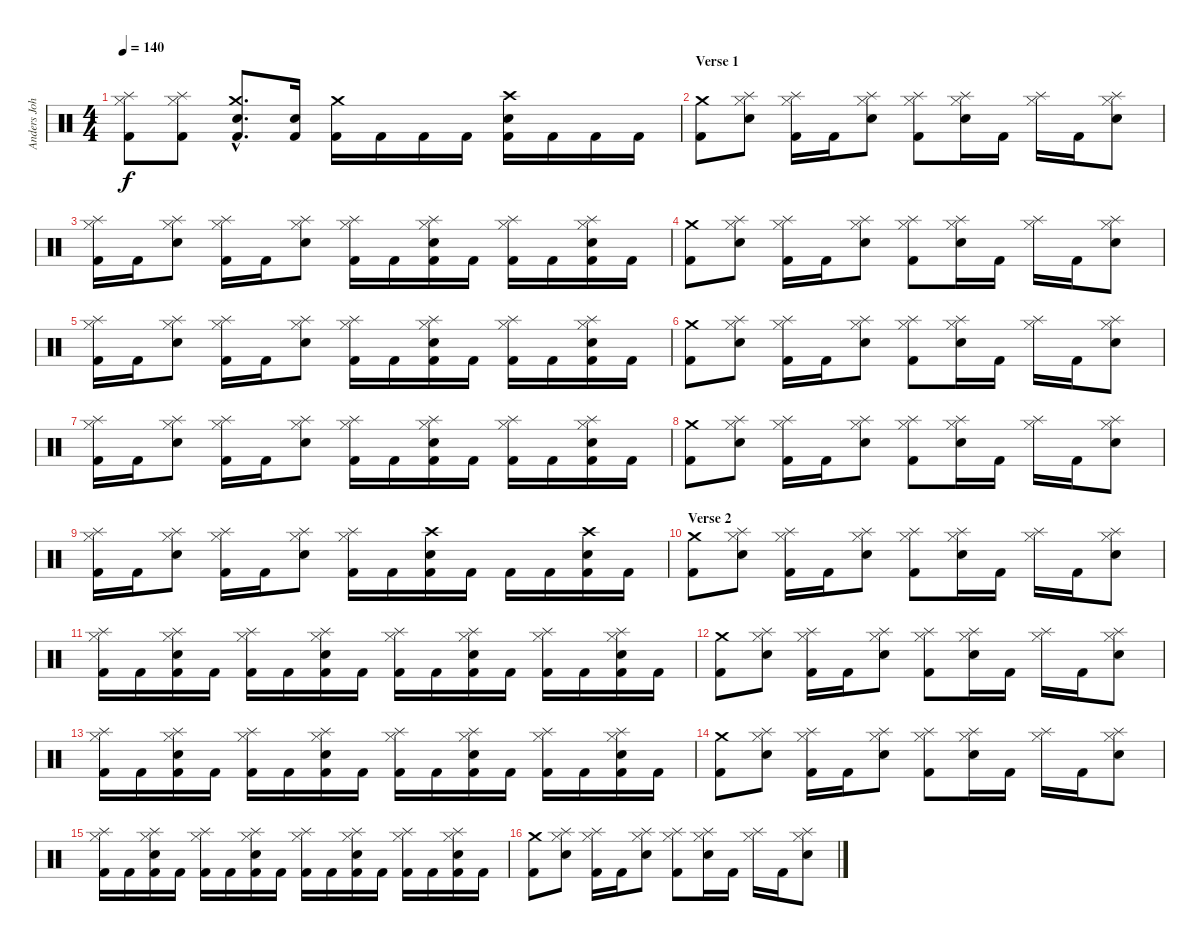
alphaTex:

\track ("Anders Johansson :: Drums" "Anders Joh") {instrument percussion}
\staff {score}
\articulation defaults
\ts (4 4)
\tempo 140
\clef neutral
\ks c
("Hi-Hat (closed)" "Splash (hit)" "Kick (hit) 2").8{dy f} ("Hi-Hat (closed)" "Splash (hit)" "Kick (hit) 2").8 ("Crash medium (hit)"{hac} "Snare (hit) 2"{hac} "Kick (hit) 2"{hac}).8{d} ("Snare (hit) 2" "Kick (hit) 2").16 ("Crash medium (hit)" "Kick (hit) 2").16 "Kick (hit) 2".16 "Kick (hit) 2".16 "Kick (hit) 2".16 ("Crash high (hit)" "Snare (hit) 2" "Kick (hit) 2").16 "Kick (hit) 2".16 "Kick (hit) 2".16 "Kick (hit) 2".16 |
\section ("" "Verse 1")
("Crash medium (hit)" "Kick (hit) 2").8 ("Hi-Hat (closed)" "Splash (hit)" "Snare (hit) 2").8 ("Hi-Hat (closed)" "Splash (hit)" "Kick (hit) 2").16 "Kick (hit) 2".16 ("Hi-Hat (closed)" "Splash (hit)" "Snare (hit) 2").8 ("Hi-Hat (closed)" "Splash (hit)" "Kick (hit) 2").8 ("Hi-Hat (closed)" "Splash (hit)" "Snare (hit) 2").16 "Kick (hit) 2".16 ("Hi-Hat (closed)" "Splash (hit)").16 "Kick (hit) 2".16 ("Hi-Hat (closed)" "Splash (hit)" "Snare (hit) 2").8 |
("Hi-Hat (closed)" "Splash (hit)" "Kick (hit) 2").16 "Kick (hit) 2".16 ("Hi-Hat (closed)" "Splash (hit)" "Snare (hit) 2").8 ("Hi-Hat (closed)" "Splash (hit)" "Kick (hit) 2").16 "Kick (hit) 2".16 ("Hi-Hat (closed)" "Splash (hit)" "Snare (hit) 2").8 ("Hi-Hat (closed)" "Splash (hit)" "Kick (hit) 2").16 "Kick (hit) 2".16 ("Hi-Hat (closed)" "Splash (hit)" "Snare (hit) 2" "Kick (hit) 2").16 "Kick (hit) 2".16 ("Hi-Hat (closed)" "Splash (hit)" "Kick (hit) 2").16 "Kick (hit) 2".16 ("Hi-Hat (closed)" "Splash (hit)" "Snare (hit) 2" "Kick (hit) 2").16 "Kick (hit) 2".16 |
("Crash medium (hit)" "Kick (hit) 2").8 ("Hi-Hat (closed)" "Splash (hit)" "Snare (hit) 2").8 ("Hi-Hat (closed)" "Splash (hit)" "Kick (hit) 2").16 "Kick (hit) 2".16 ("Hi-Hat (closed)" "Splash (hit)" "Snare (hit) 2").8 ("Hi-Hat (closed)" "Splash (hit)" "Kick (hit) 2").8 ("Hi-Hat (closed)" "Splash (hit)" "Snare (hit) 2").16 "Kick (hit) 2".16 ("Hi-Hat (closed)" "Splash (hit)").16 "Kick (hit) 2".16 ("Hi-Hat (closed)" "Splash (hit)" "Snare (hit) 2").8 |
("Hi-Hat (closed)" "Splash (hit)" "Kick (hit) 2").16 "Kick (hit) 2".16 ("Hi-Hat (closed)" "Splash (hit)" "Snare (hit) 2").8 ("Hi-Hat (closed)" "Splash (hit)" "Kick (hit) 2").16 "Kick (hit) 2".16 ("Hi-Hat (closed)" "Splash (hit)" "Snare (hit) 2").8 ("Hi-Hat (closed)" "Splash (hit)" "Kick (hit) 2").16 "Kick (hit) 2".16 ("Hi-Hat (closed)" "Splash (hit)" "Snare (hit) 2" "Kick (hit) 2").16 "Kick (hit) 2".16 ("Hi-Hat (closed)" "Splash (hit)" "Kick (hit) 2").16 "Kick (hit) 2".16 ("Hi-Hat (closed)" "Splash (hit)" "Snare (hit) 2" "Kick (hit) 2").16 "Kick (hit) 2".16 |
("Crash medium (hit)" "Kick (hit) 2").8 ("Hi-Hat (closed)" "Splash (hit)" "Snare (hit) 2").8 ("Hi-Hat (closed)" "Splash (hit)" "Kick (hit) 2").16 "Kick (hit) 2".16 ("Hi-Hat (closed)" "Splash (hit)" "Snare (hit) 2").8 ("Hi-Hat (closed)" "Splash (hit)" "Kick (hit) 2").8 ("Hi-Hat (closed)" "Splash (hit)" "Snare (hit) 2").16 "Kick (hit) 2".16 ("Hi-Hat (closed)" "Splash (hit)").16 "Kick (hit) 2".16 ("Hi-Hat (closed)" "Splash (hit)" "Snare (hit) 2").8 |
("Hi-Hat (closed)" "Splash (hit)" "Kick (hit) 2").16 "Kick (hit) 2".16 ("Hi-Hat (closed)" "Splash (hit)" "Snare (hit) 2").8 ("Hi-Hat (closed)" "Splash (hit)" "Kick (hit) 2").16 "Kick (hit) 2".16 ("Hi-Hat (closed)" "Splash (hit)" "Snare (hit) 2").8 ("Hi-Hat (closed)" "Splash (hit)" "Kick (hit) 2").16 "Kick (hit) 2".16 ("Hi-Hat (closed)" "Splash (hit)" "Snare (hit) 2" "Kick (hit) 2").16 "Kick (hit) 2".16 ("Hi-Hat (closed)" "Splash (hit)" "Kick (hit) 2").16 "Kick (hit) 2".16 ("Hi-Hat (closed)" "Splash (hit)" "Snare (hit) 2" "Kick (hit) 2").16 "Kick (hit) 2".16 |
("Crash medium (hit)" "Kick (hit) 2").8 ("Hi-Hat (closed)" "Splash (hit)" "Snare (hit) 2").8 ("Hi-Hat (closed)" "Splash (hit)" "Kick (hit) 2").16 "Kick (hit) 2".16 ("Hi-Hat (closed)" "Splash (hit)" "Snare (hit) 2").8 ("Hi-Hat (closed)" "Splash (hit)" "Kick (hit) 2").8 ("Hi-Hat (closed)" "Splash (hit)" "Snare (hit) 2").16 "Kick (hit) 2".16 ("Hi-Hat (closed)" "Splash (hit)").16 "Kick (hit) 2".16 ("Hi-Hat (closed)" "Splash (hit)" "Snare (hit) 2").8 |
("Hi-Hat (closed)" "Splash (hit)" "Kick (hit) 2").16 "Kick (hit) 2".16 ("Hi-Hat (closed)" "Splash (hit)" "Snare (hit) 2").8 ("Hi-Hat (closed)" "Splash (hit)" "Kick (hit) 2").16 "Kick (hit) 2".16 ("Hi-Hat (closed)" "Splash (hit)" "Snare (hit) 2").8 ("Hi-Hat (closed)" "Splash (hit)" "Kick (hit) 2").16 "Kick (hit) 2".16 ("Crash high (hit)" "Snare (hit) 2" "Kick (hit) 2").16 "Kick (hit) 2".16 "Kick (hit) 2".16 "Kick (hit) 2".16 ("Crash high (hit)" "Snare (hit) 2" "Kick (hit) 2").16 "Kick (hit) 2".16 |
\section ("" "Verse 2")
("Crash medium (hit)" "Kick (hit) 2").8 ("Hi-Hat (closed)" "Splash (hit)" "Snare (hit) 2").8 ("Hi-Hat (closed)" "Splash (hit)" "Kick (hit) 2").16 "Kick (hit) 2".16 ("Hi-Hat (closed)" "Splash (hit)" "Snare (hit) 2").8 ("Hi-Hat (closed)" "Splash (hit)" "Kick (hit) 2").8 ("Hi-Hat (closed)" "Splash (hit)" "Snare (hit) 2").16 "Kick (hit) 2".16 ("Hi-Hat (closed)" "Splash (hit)").16 "Kick (hit) 2".16 ("Hi-Hat (closed)" "Splash (hit)" "Snare (hit) 2").8 |
("Hi-Hat (closed)" "Splash (hit)" "Kick (hit) 2").16 "Kick (hit) 2".16 ("Hi-Hat (closed)" "Splash (hit)" "Snare (hit) 2" "Kick (hit) 2").16 "Kick (hit) 2".16 ("Hi-Hat (closed)" "Splash (hit)" "Kick (hit) 2").16 "Kick (hit) 2".16 ("Hi-Hat (closed)" "Splash (hit)" "Snare (hit) 2" "Kick (hit) 2").16 "Kick (hit) 2".16 ("Hi-Hat (closed)" "Splash (hit)" "Kick (hit) 2").16 "Kick (hit) 2".16 ("Hi-Hat (closed)" "Splash (hit)" "Snare (hit) 2" "Kick (hit) 2").16 "Kick (hit) 2".16 ("Hi-Hat (closed)" "Splash (hit)" "Kick (hit) 2").16 "Kick (hit) 2".16 ("Hi-Hat (closed)" "Splash (hit)" "Snare (hit) 2" "Kick (hit) 2").16 "Kick (hit) 2".16 |
("Crash medium (hit)" "Kick (hit) 2").8 ("Hi-Hat (closed)" "Splash (hit)" "Snare (hit) 2").8 ("Hi-Hat (closed)" "Splash (hit)" "Kick (hit) 2").16 "Kick (hit) 2".16 ("Hi-Hat (closed)" "Splash (hit)" "Snare (hit) 2").8 ("Hi-Hat (closed)" "Splash (hit)" "Kick (hit) 2").8 ("Hi-Hat (closed)" "Splash (hit)" "Snare (hit) 2").16 "Kick (hit) 2".16 ("Hi-Hat (closed)" "Splash (hit)").16 "Kick (hit) 2".16 ("Hi-Hat (closed)" "Splash (hit)" "Snare (hit) 2").8 |
("Hi-Hat (closed)" "Splash (hit)" "Kick (hit) 2").16 "Kick (hit) 2".16 ("Hi-Hat (closed)" "Splash (hit)" "Snare (hit) 2" "Kick (hit) 2").16 "Kick (hit) 2".16 ("Hi-Hat (closed)" "Splash (hit)" "Kick (hit) 2").16 "Kick (hit) 2".16 ("Hi-Hat (closed)" "Splash (hit)" "Snare (hit) 2" "Kick (hit) 2").16 "Kick (hit) 2".16 ("Hi-Hat (closed)" "Splash (hit)" "Kick (hit) 2").16 "Kick (hit) 2".16 ("Hi-Hat (closed)" "Splash (hit)" "Snare (hit) 2" "Kick (hit) 2").16 "Kick (hit) 2".16 ("Hi-Hat (closed)" "Splash (hit)" "Kick (hit) 2").16 "Kick (hit) 2".16 ("Hi-Hat (closed)" "Splash (hit)" "Snare (hit) 2" "Kick (hit) 2").16 "Kick (hit) 2".16 |
("Crash medium (hit)" "Kick (hit) 2").8 ("Hi-Hat (closed)" "Splash (hit)" "Snare (hit) 2").8 ("Hi-Hat (closed)" "Splash (hit)" "Kick (hit) 2").16 "Kick (hit) 2".16 ("Hi-Hat (closed)" "Splash (hit)" "Snare (hit) 2").8 ("Hi-Hat (closed)" "Splash (hit)" "Kick (hit) 2").8 ("Hi-Hat (closed)" "Splash (hit)" "Snare (hit) 2").16 "Kick (hit) 2".16 ("Hi-Hat (closed)" "Splash (hit)").16 "Kick (hit) 2".16 ("Hi-Hat (closed)" "Splash (hit)" "Snare (hit) 2").8 |
("Hi-Hat (closed)" "Splash (hit)" "Kick (hit) 2").16 "Kick (hit) 2".16 ("Hi-Hat (closed)" "Splash (hit)" "Snare (hit) 2" "Kick (hit) 2").16 "Kick (hit) 2".16 ("Hi-Hat (closed)" "Splash (hit)" "Kick (hit) 2").16 "Kick (hit) 2".16 ("Hi-Hat (closed)" "Splash (hit)" "Snare (hit) 2" "Kick (hit) 2").16 "Kick (hit) 2".16 ("Hi-Hat (closed)" "Splash (hit)" "Kick (hit) 2").16 "Kick (hit) 2".16 ("Hi-Hat (closed)" "Splash (hit)" "Snare (hit) 2" "Kick (hit) 2").16 "Kick (hit) 2".16 ("Hi-Hat (closed)" "Splash (hit)" "Kick (hit) 2").16 "Kick (hit) 2".16 ("Hi-Hat (closed)" "Splash (hit)" "Snare (hit) 2" "Kick (hit) 2").16 "Kick (hit) 2".16 |
("Crash medium (hit)" "Kick (hit) 2").8 ("Hi-Hat (closed)" "Splash (hit)" "Snare (hit) 2").8 ("Hi-Hat (closed)" "Splash (hit)" "Kick (hit) 2").16 "Kick (hit) 2".16 ("Hi-Hat (closed)" "Splash (hit)" "Snare (hit) 2").8 ("Hi-Hat (closed)" "Splash (hit)" "Kick (hit) 2").8 ("Hi-Hat (closed)" "Splash (hit)" "Snare (hit) 2").16 "Kick (hit) 2".16 ("Hi-Hat (closed)" "Splash (hit)").16 "Kick (hit) 2".16 ("Hi-Hat (closed)" "Splash (hit)" "Snare (hit) 2").8
